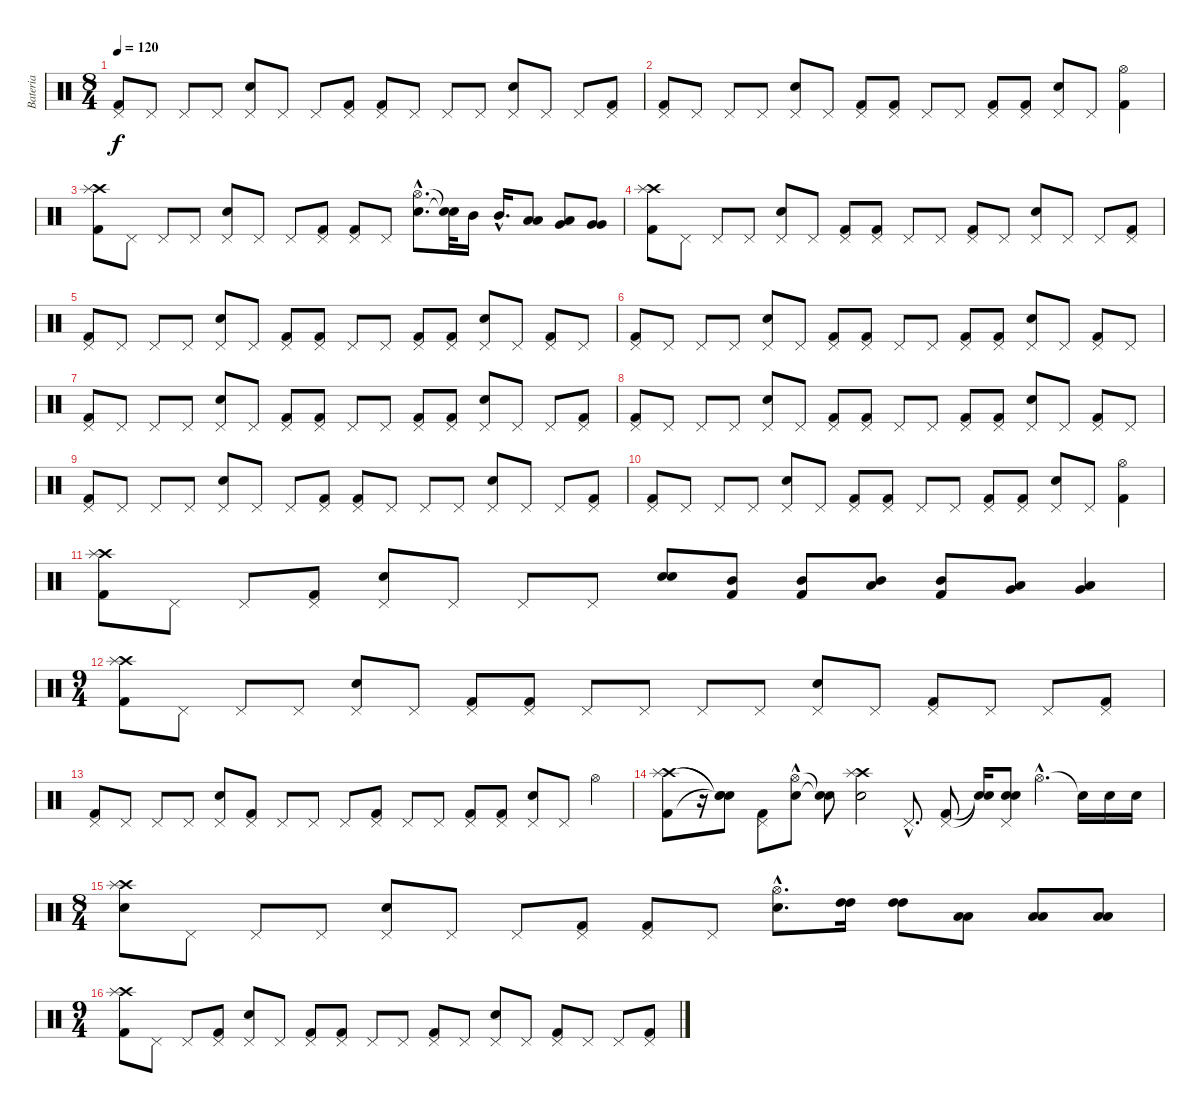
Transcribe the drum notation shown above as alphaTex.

\track ("Bateria" "Bateria") {instrument percussion}
\staff {score}
\articulation defaults
\ts (8 4)
\tempo 120
\clef neutral
\ks c
("Pedal Hi-Hat (hit)" "Kick (hit) 2").8{dy f} "Pedal Hi-Hat (hit)".8 "Pedal Hi-Hat (hit)".8 "Pedal Hi-Hat (hit)".8 ("Pedal Hi-Hat (hit)" "Snare (hit) 2").8 "Pedal Hi-Hat (hit)".8 "Pedal Hi-Hat (hit)".8 ("Pedal Hi-Hat (hit)" "Kick (hit) 2").8 ("Pedal Hi-Hat (hit)" "Kick (hit) 2").8 "Pedal Hi-Hat (hit)".8 "Pedal Hi-Hat (hit)".8 "Pedal Hi-Hat (hit)".8 ("Pedal Hi-Hat (hit)" "Snare (hit) 2").8 "Pedal Hi-Hat (hit)".8 "Pedal Hi-Hat (hit)".8 ("Pedal Hi-Hat (hit)" "Kick (hit) 2").8 |
("Pedal Hi-Hat (hit)" "Kick (hit) 2").8 "Pedal Hi-Hat (hit)".8 "Pedal Hi-Hat (hit)".8 "Pedal Hi-Hat (hit)".8 ("Pedal Hi-Hat (hit)" "Snare (hit) 2").8 "Pedal Hi-Hat (hit)".8 ("Pedal Hi-Hat (hit)" "Kick (hit) 2").8 ("Pedal Hi-Hat (hit)" "Kick (hit) 2").8 "Pedal Hi-Hat (hit)".8 "Pedal Hi-Hat (hit)".8 ("Pedal Hi-Hat (hit)" "Kick (hit) 2").8 ("Pedal Hi-Hat (hit)" "Kick (hit) 2").8 ("Pedal Hi-Hat (hit)" "Snare (hit) 2").8 "Pedal Hi-Hat (hit)".8 ("Hi-Hat (open)" "Kick (hit) 2").4 |
("Crash high (hit)" "Kick (hit) 2" "Splash (hit)").8 "Pedal Hi-Hat (hit)".8 "Pedal Hi-Hat (hit)".8 "Pedal Hi-Hat (hit)".8 ("Pedal Hi-Hat (hit)" "Snare (hit) 2").8 "Pedal Hi-Hat (hit)".8 "Pedal Hi-Hat (hit)".8 ("Pedal Hi-Hat (hit)" "Kick (hit) 2").8 ("Pedal Hi-Hat (hit)" "Kick (hit) 2").8 "Pedal Hi-Hat (hit)".8 ("Hi-Hat (open)"{hac} "Snare (hit) 2"{hac}).8{d} ("Snare (hit)"{t} "Snare (hit)"{t}).32 "Mid Tom (hit)".16 "Mid Tom (hit)"{hac}.16{d} ("Low Tom (hit)" "Low Tom (hit)").8{bd 120} ("Very Low Tom (hit)" "Low Tom (hit)").8{bd 120} ("Very Low Tom (hit)" "Very Low Tom (hit)").8{bd 120} |
("Crash high (hit)" "Kick (hit) 2" "Splash (hit)").8 "Pedal Hi-Hat (hit)".8 "Pedal Hi-Hat (hit)".8 "Pedal Hi-Hat (hit)".8 ("Pedal Hi-Hat (hit)" "Snare (hit) 2").8 "Pedal Hi-Hat (hit)".8 ("Pedal Hi-Hat (hit)" "Kick (hit) 2").8 ("Pedal Hi-Hat (hit)" "Kick (hit) 2").8 "Pedal Hi-Hat (hit)".8 "Pedal Hi-Hat (hit)".8 ("Pedal Hi-Hat (hit)" "Kick (hit) 2").8 "Pedal Hi-Hat (hit)".8 ("Pedal Hi-Hat (hit)" "Snare (hit) 2").8 "Pedal Hi-Hat (hit)".8 "Pedal Hi-Hat (hit)".8 ("Pedal Hi-Hat (hit)" "Kick (hit) 2").8 |
("Pedal Hi-Hat (hit)" "Kick (hit) 2").8 "Pedal Hi-Hat (hit)".8 "Pedal Hi-Hat (hit)".8 "Pedal Hi-Hat (hit)".8 ("Pedal Hi-Hat (hit)" "Snare (hit) 2").8 "Pedal Hi-Hat (hit)".8 ("Pedal Hi-Hat (hit)" "Kick (hit) 2").8 ("Pedal Hi-Hat (hit)" "Kick (hit) 2").8 "Pedal Hi-Hat (hit)".8 "Pedal Hi-Hat (hit)".8 ("Pedal Hi-Hat (hit)" "Kick (hit) 2").8 ("Pedal Hi-Hat (hit)" "Kick (hit) 2").8 ("Pedal Hi-Hat (hit)" "Snare (hit) 2").8 "Pedal Hi-Hat (hit)".8 ("Pedal Hi-Hat (hit)" "Kick (hit) 2").8 "Pedal Hi-Hat (hit)".8 |
("Pedal Hi-Hat (hit)" "Kick (hit) 2").8 "Pedal Hi-Hat (hit)".8 "Pedal Hi-Hat (hit)".8 "Pedal Hi-Hat (hit)".8 ("Pedal Hi-Hat (hit)" "Snare (hit) 2").8 "Pedal Hi-Hat (hit)".8 ("Pedal Hi-Hat (hit)" "Kick (hit) 2").8 ("Pedal Hi-Hat (hit)" "Kick (hit) 2").8 "Pedal Hi-Hat (hit)".8 "Pedal Hi-Hat (hit)".8 ("Pedal Hi-Hat (hit)" "Kick (hit) 2").8 ("Pedal Hi-Hat (hit)" "Kick (hit) 2").8 ("Pedal Hi-Hat (hit)" "Snare (hit) 2").8 "Pedal Hi-Hat (hit)".8 ("Pedal Hi-Hat (hit)" "Kick (hit) 2").8 "Pedal Hi-Hat (hit)".8 |
("Pedal Hi-Hat (hit)" "Kick (hit) 2").8 "Pedal Hi-Hat (hit)".8 "Pedal Hi-Hat (hit)".8 "Pedal Hi-Hat (hit)".8 ("Pedal Hi-Hat (hit)" "Snare (hit) 2").8 "Pedal Hi-Hat (hit)".8 ("Pedal Hi-Hat (hit)" "Kick (hit) 2").8 ("Pedal Hi-Hat (hit)" "Kick (hit) 2").8 "Pedal Hi-Hat (hit)".8 "Pedal Hi-Hat (hit)".8 ("Pedal Hi-Hat (hit)" "Kick (hit) 2").8 ("Pedal Hi-Hat (hit)" "Kick (hit) 2").8 ("Pedal Hi-Hat (hit)" "Snare (hit) 2").8 "Pedal Hi-Hat (hit)".8 "Pedal Hi-Hat (hit)".8 ("Pedal Hi-Hat (hit)" "Kick (hit) 2").8 |
("Pedal Hi-Hat (hit)" "Kick (hit) 2").8 "Pedal Hi-Hat (hit)".8 "Pedal Hi-Hat (hit)".8 "Pedal Hi-Hat (hit)".8 ("Pedal Hi-Hat (hit)" "Snare (hit) 2").8 "Pedal Hi-Hat (hit)".8 ("Pedal Hi-Hat (hit)" "Kick (hit) 2").8 ("Pedal Hi-Hat (hit)" "Kick (hit) 2").8 "Pedal Hi-Hat (hit)".8 "Pedal Hi-Hat (hit)".8 ("Pedal Hi-Hat (hit)" "Kick (hit) 2").8 ("Pedal Hi-Hat (hit)" "Kick (hit) 2").8 ("Pedal Hi-Hat (hit)" "Snare (hit) 2").8 "Pedal Hi-Hat (hit)".8 ("Pedal Hi-Hat (hit)" "Kick (hit) 2").8 "Pedal Hi-Hat (hit)".8 |
("Pedal Hi-Hat (hit)" "Kick (hit) 2").8 "Pedal Hi-Hat (hit)".8 "Pedal Hi-Hat (hit)".8 "Pedal Hi-Hat (hit)".8 ("Pedal Hi-Hat (hit)" "Snare (hit) 2").8 "Pedal Hi-Hat (hit)".8 "Pedal Hi-Hat (hit)".8 ("Pedal Hi-Hat (hit)" "Kick (hit) 2").8 ("Pedal Hi-Hat (hit)" "Kick (hit) 2").8 "Pedal Hi-Hat (hit)".8 "Pedal Hi-Hat (hit)".8 "Pedal Hi-Hat (hit)".8 ("Pedal Hi-Hat (hit)" "Snare (hit) 2").8 "Pedal Hi-Hat (hit)".8 "Pedal Hi-Hat (hit)".8 ("Pedal Hi-Hat (hit)" "Kick (hit) 2").8 |
("Pedal Hi-Hat (hit)" "Kick (hit) 2").8 "Pedal Hi-Hat (hit)".8 "Pedal Hi-Hat (hit)".8 "Pedal Hi-Hat (hit)".8 ("Pedal Hi-Hat (hit)" "Snare (hit) 2").8 "Pedal Hi-Hat (hit)".8 ("Pedal Hi-Hat (hit)" "Kick (hit) 2").8 ("Pedal Hi-Hat (hit)" "Kick (hit) 2").8 "Pedal Hi-Hat (hit)".8 "Pedal Hi-Hat (hit)".8 ("Pedal Hi-Hat (hit)" "Kick (hit) 2").8 ("Pedal Hi-Hat (hit)" "Kick (hit) 2").8 ("Pedal Hi-Hat (hit)" "Snare (hit) 2").8 "Pedal Hi-Hat (hit)".8 ("Hi-Hat (open)" "Kick (hit) 2").4 |
("Crash high (hit)" "Kick (hit) 2" "Splash (hit)").8 "Pedal Hi-Hat (hit)".8 "Pedal Hi-Hat (hit)".8 ("Pedal Hi-Hat (hit)" "Kick (hit) 2").8 ("Pedal Hi-Hat (hit)" "Snare (hit) 2").8 "Pedal Hi-Hat (hit)".8 "Pedal Hi-Hat (hit)".8 "Pedal Hi-Hat (hit)".8 ("Electric Snare (hit)" "Snare (hit) 2").8{bd 480} ("Mid Tom (hit)" "Kick (hit) 2").8 ("Mid Tom (hit)" "Kick (hit) 2").8 ("Low Tom (hit)" "Mid Tom (hit)").8{bd 480} ("Mid Tom (hit)" "Kick (hit) 2").8 ("Very Low Tom (hit)" "Low Tom (hit)").8{bd 480} ("Low Floor Tom (hit)" "Very Low Tom (hit)").4{bd 480} |
\ts (9 4)
("Crash high (hit)" "Kick (hit) 2" "Splash (hit)").8 "Pedal Hi-Hat (hit)".8 "Pedal Hi-Hat (hit)".8 "Pedal Hi-Hat (hit)".8 ("Pedal Hi-Hat (hit)" "Electric Snare (hit)").8 "Pedal Hi-Hat (hit)".8 ("Pedal Hi-Hat (hit)" "Kick (hit) 2").8 ("Pedal Hi-Hat (hit)" "Kick (hit) 2").8 "Pedal Hi-Hat (hit)".8 "Pedal Hi-Hat (hit)".8 "Pedal Hi-Hat (hit)".8 "Pedal Hi-Hat (hit)".8 ("Pedal Hi-Hat (hit)" "Electric Snare (hit)").8 "Pedal Hi-Hat (hit)".8 ("Pedal Hi-Hat (hit)" "Kick (hit) 2").8 "Pedal Hi-Hat (hit)".8 "Pedal Hi-Hat (hit)".8 ("Pedal Hi-Hat (hit)" "Kick (hit) 2").8 |
("Pedal Hi-Hat (hit)" "Kick (hit) 2").8 "Pedal Hi-Hat (hit)".8 "Pedal Hi-Hat (hit)".8 "Pedal Hi-Hat (hit)".8 ("Pedal Hi-Hat (hit)" "Electric Snare (hit)").8 ("Pedal Hi-Hat (hit)" "Kick (hit) 2").8 "Pedal Hi-Hat (hit)".8 "Pedal Hi-Hat (hit)".8 "Pedal Hi-Hat (hit)".8 ("Pedal Hi-Hat (hit)" "Kick (hit) 2").8 "Pedal Hi-Hat (hit)".8 "Pedal Hi-Hat (hit)".8 ("Pedal Hi-Hat (hit)" "Kick (hit) 2").8 ("Pedal Hi-Hat (hit)" "Kick (hit) 2").8 ("Pedal Hi-Hat (hit)" "Electric Snare (hit)").8 "Pedal Hi-Hat (hit)".8 "Hi-Hat (open)".4 |
("Crash high (hit)" "Kick (hit) 2" "Splash (hit)").8 r.16 ("Snare (hit)"{t} "Snare (hit)"{t} "Snare (hit)"{t}).8 ("Pedal Hi-Hat (hit)" "Kick (hit) 2").8 ("Hi-Hat (open)"{hac} "Electric Snare (hit)").8 ("Snare (hit)"{t} "Snare (hit)"{t}).8 ("Crash high (hit)" "Snare (hit) 2" "Splash (hit)").2 "Pedal Hi-Hat (hit)"{hac}.8{d} ("Pedal Hi-Hat (hit)" "Kick (hit) 2").8 ("Snare (hit)"{t} "Snare (hit)"{t}).16 ("Pedal Hi-Hat (hit)" "Snare (hit) 2" "Electric Snare (hit)").8 "Hi-Hat (open)"{hac}.4{d} "Snare (hit)"{t}.16 "Electric Snare (hit)".16 "Electric Snare (hit)".16 |
\ts (8 4)
("Crash high (hit)" "Snare (hit) 2" "Splash (hit)").8 "Pedal Hi-Hat (hit)".8 "Pedal Hi-Hat (hit)".8 "Pedal Hi-Hat (hit)".8 ("Pedal Hi-Hat (hit)" "Electric Snare (hit)").8 "Pedal Hi-Hat (hit)".8 "Pedal Hi-Hat (hit)".8 ("Pedal Hi-Hat (hit)" "Kick (hit) 2").8 ("Pedal Hi-Hat (hit)" "Kick (hit) 2").8 "Pedal Hi-Hat (hit)".8 ("Hi-Hat (open)"{hac} "Snare (hit) 2"{hac}).8{d} ("High Tom (hit)" "High Tom (hit)").16 ("High Tom (hit)" "High Tom (hit)").8 ("Low Tom (hit)" "Low Tom (hit)").8 ("Low Tom (hit)" "Low Tom (hit)").8 ("Low Floor Tom (hit)" "Low Floor Tom (hit)").8 |
\ts (9 4)
("Crash high (hit)" "Kick (hit) 2" "Splash (hit)").8 "Pedal Hi-Hat (hit)".8 "Pedal Hi-Hat (hit)".8 ("Pedal Hi-Hat (hit)" "Kick (hit) 2").8 ("Pedal Hi-Hat (hit)" "Electric Snare (hit)").8 "Pedal Hi-Hat (hit)".8 ("Pedal Hi-Hat (hit)" "Kick (hit) 2").8 ("Pedal Hi-Hat (hit)" "Kick (hit) 2").8 "Pedal Hi-Hat (hit)".8 "Pedal Hi-Hat (hit)".8 ("Pedal Hi-Hat (hit)" "Kick (hit) 2").8 "Pedal Hi-Hat (hit)".8 ("Pedal Hi-Hat (hit)" "Electric Snare (hit)").8 "Pedal Hi-Hat (hit)".8 ("Pedal Hi-Hat (hit)" "Kick (hit) 2").8 "Pedal Hi-Hat (hit)".8 "Pedal Hi-Hat (hit)".8 ("Pedal Hi-Hat (hit)" "Kick (hit) 2").8
